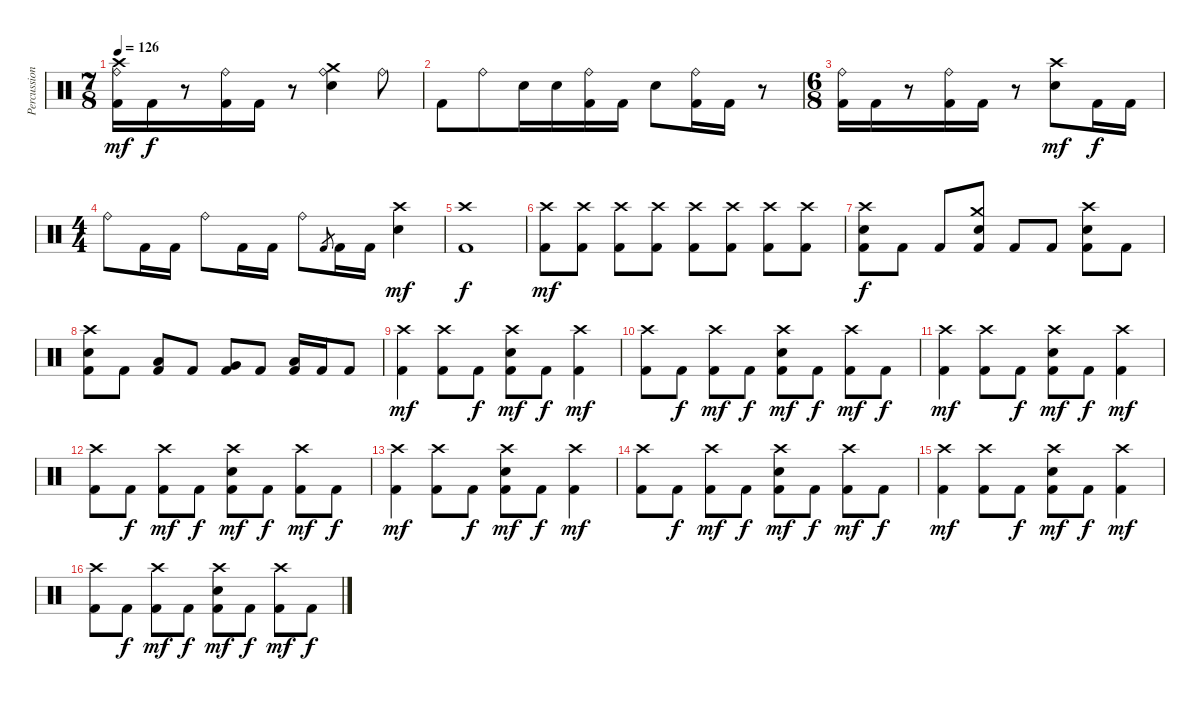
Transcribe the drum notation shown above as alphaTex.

\track ("Percussion" "Percussion") {instrument percussion}
\staff {score}
\articulation defaults
\ts (7 8)
\tempo 126
\clef neutral
\ks c
("Crash high (hit)" "Ride (bell)" "Kick (hit) 2").16{dy mf} "Kick (hit) 2".16{dy f} r.8 ("Ride (bell)" "Kick (hit) 2").16 "Kick (hit) 2".16 r.8 ("Crash medium (hit)" "Ride (bell)" "Electric Snare (hit)").4 "Ride (bell)".8 |
"Kick (hit) 2".8 "Ride (bell)".8 "Electric Snare (hit)".16 "Electric Snare (hit)".16 ("Ride (bell)" "Kick (hit) 2").16 "Kick (hit) 2".16 "Electric Snare (hit)".8 ("Ride (bell)" "Kick (hit) 2").16 "Kick (hit) 2".16 r.8 |
\ts (6 8)
("Ride (bell)" "Kick (hit) 2").16 "Kick (hit) 2".16 r.8 ("Ride (bell)" "Kick (hit) 2").16 "Kick (hit) 2".16 r.8 ("Crash high (hit)" "Electric Snare (hit)").8{dy mf} "Kick (hit) 2".16{dy f} "Kick (hit) 2".16 |
\ts (4 4)
"Ride (bell)".8 "Kick (hit) 2".16 "Kick (hit) 2".16 "Ride (bell)".8 "Kick (hit) 2".16 "Kick (hit) 2".16 "Ride (bell)".8 "Kick (hit) 2".8{gr} "Kick (hit) 2".16 "Kick (hit) 2".16 ("Crash high (hit)" "Electric Snare (hit)").4{dy mf} |
("Crash high (hit)" "Kick (hit) 2").1{dy f} |
("Crash high (hit)" "Kick (hit) 2").8{dy mf} ("Crash high (hit)" "Kick (hit) 2").8 ("Crash high (hit)" "Kick (hit) 2").8 ("Crash high (hit)" "Kick (hit) 2").8 ("Crash high (hit)" "Kick (hit) 2").8 ("Crash high (hit)" "Kick (hit) 2").8 ("Crash high (hit)" "Kick (hit) 2").8 ("Crash high (hit)" "Kick (hit) 2").8 |
("Crash high (hit)" "Electric Snare (hit)" "Kick (hit) 2").8{dy f} "Kick (hit) 2".8 "Kick (hit) 2".8 ("Crash medium (hit)" "Electric Snare (hit)" "Kick (hit) 2").8 "Kick (hit) 2".8 "Kick (hit) 2".8 ("Crash high (hit)" "Electric Snare (hit)" "Kick (hit) 2").8 "Kick (hit) 2".8 |
("Crash high (hit)" "Electric Snare (hit)" "Kick (hit) 2").8 "Kick (hit) 2".8 ("Low Tom (hit)" "Kick (hit) 2").8 "Kick (hit) 2".8 ("Very Low Tom (hit)" "Kick (hit) 2").8 "Kick (hit) 2".8 ("Low Floor Tom (hit)" "Kick (hit) 2").16 "Kick (hit) 2".16 "Kick (hit) 2".8 |
("Crash high (hit)" "Kick (hit) 2").4{dy mf} ("Crash high (hit)" "Kick (hit) 2").8 "Kick (hit) 2".8{dy f} ("Crash high (hit)" "Electric Snare (hit)" "Kick (hit) 2").8{dy mf} "Kick (hit) 2".8{dy f} ("Crash high (hit)" "Kick (hit) 2").4{dy mf} |
("Crash high (hit)" "Kick (hit) 2").8 "Kick (hit) 2".8{dy f} ("Crash high (hit)" "Kick (hit) 2").8{dy mf} "Kick (hit) 2".8{dy f} ("Crash high (hit)" "Electric Snare (hit)" "Kick (hit) 2").8{dy mf} "Kick (hit) 2".8{dy f} ("Crash high (hit)" "Kick (hit) 2").8{dy mf} "Kick (hit) 2".8{dy f} |
("Crash high (hit)" "Kick (hit) 2").4{dy mf} ("Crash high (hit)" "Kick (hit) 2").8 "Kick (hit) 2".8{dy f} ("Crash high (hit)" "Electric Snare (hit)" "Kick (hit) 2").8{dy mf} "Kick (hit) 2".8{dy f} ("Crash high (hit)" "Kick (hit) 2").4{dy mf} |
("Crash high (hit)" "Kick (hit) 2").8 "Kick (hit) 2".8{dy f} ("Crash high (hit)" "Kick (hit) 2").8{dy mf} "Kick (hit) 2".8{dy f} ("Crash high (hit)" "Electric Snare (hit)" "Kick (hit) 2").8{dy mf} "Kick (hit) 2".8{dy f} ("Crash high (hit)" "Kick (hit) 2").8{dy mf} "Kick (hit) 2".8{dy f} |
("Crash high (hit)" "Kick (hit) 2").4{dy mf} ("Crash high (hit)" "Kick (hit) 2").8 "Kick (hit) 2".8{dy f} ("Crash high (hit)" "Electric Snare (hit)" "Kick (hit) 2").8{dy mf} "Kick (hit) 2".8{dy f} ("Crash high (hit)" "Kick (hit) 2").4{dy mf} |
("Crash high (hit)" "Kick (hit) 2").8 "Kick (hit) 2".8{dy f} ("Crash high (hit)" "Kick (hit) 2").8{dy mf} "Kick (hit) 2".8{dy f} ("Crash high (hit)" "Electric Snare (hit)" "Kick (hit) 2").8{dy mf} "Kick (hit) 2".8{dy f} ("Crash high (hit)" "Kick (hit) 2").8{dy mf} "Kick (hit) 2".8{dy f} |
("Crash high (hit)" "Kick (hit) 2").4{dy mf} ("Crash high (hit)" "Kick (hit) 2").8 "Kick (hit) 2".8{dy f} ("Crash high (hit)" "Electric Snare (hit)" "Kick (hit) 2").8{dy mf} "Kick (hit) 2".8{dy f} ("Crash high (hit)" "Kick (hit) 2").4{dy mf} |
("Crash high (hit)" "Kick (hit) 2").8 "Kick (hit) 2".8{dy f} ("Crash high (hit)" "Kick (hit) 2").8{dy mf} "Kick (hit) 2".8{dy f} ("Crash high (hit)" "Electric Snare (hit)" "Kick (hit) 2").8{dy mf} "Kick (hit) 2".8{dy f} ("Crash high (hit)" "Kick (hit) 2").8{dy mf} "Kick (hit) 2".8{dy f}
